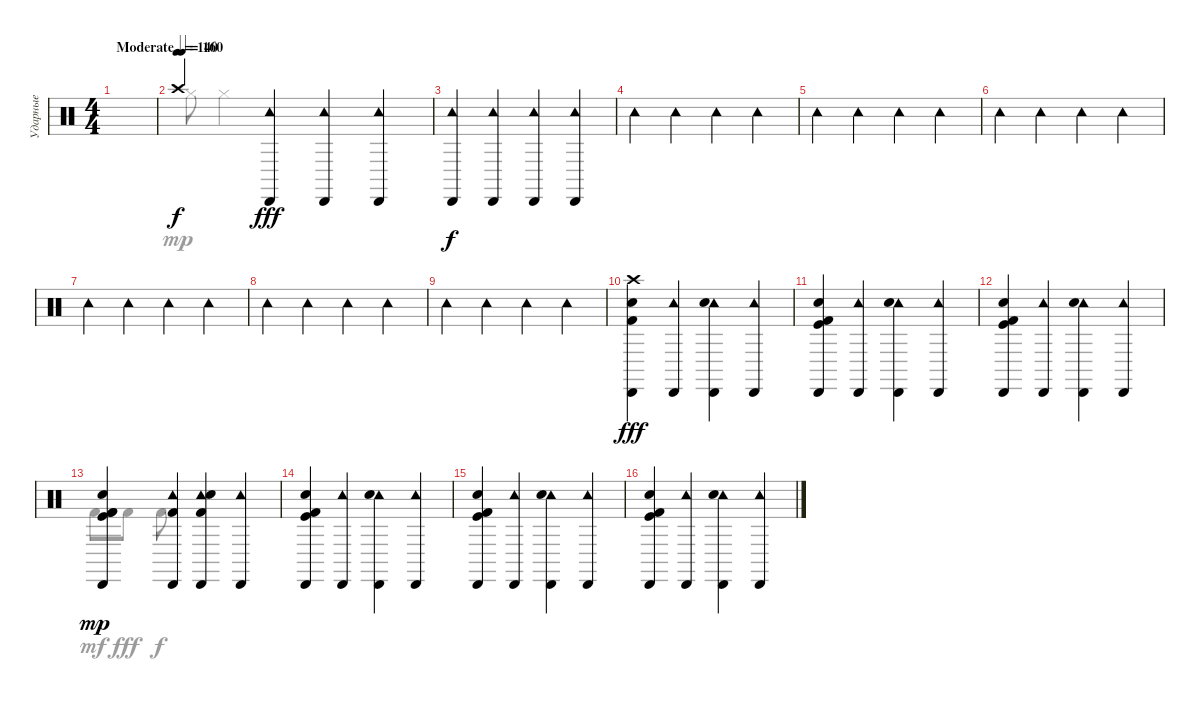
\track ("Ударные" "Ударные") {instrument percussion}
\staff {score}
\articulation defaults
\voice
\ts (4 4)
\tempo (160 "Moderate")
\clef neutral
\ks c
|
\tempo (140)
"Crash high (hit)".4 ("Tambourine (hit)" "Cabasa (hit)").4{dy fff} ("Tambourine (hit)" "Cabasa (hit)").4 ("Tambourine (hit)" "Cabasa (hit)").4 |
("Tambourine (hit)" "Cabasa (hit)").4{dy f} ("Tambourine (hit)" "Cabasa (hit)").4 ("Tambourine (hit)" "Cabasa (hit)").4 ("Tambourine (hit)" "Cabasa (hit)").4 |
"Tambourine (hit)".4 "Tambourine (hit)".4 "Tambourine (hit)".4 "Tambourine (hit)".4 |
"Tambourine (hit)".4 "Tambourine (hit)".4 "Tambourine (hit)".4 "Tambourine (hit)".4 |
"Tambourine (hit)".4 "Tambourine (hit)".4 "Tambourine (hit)".4 "Tambourine (hit)".4 |
"Tambourine (hit)".4 "Tambourine (hit)".4 "Tambourine (hit)".4 "Tambourine (hit)".4 |
"Tambourine (hit)".4 "Tambourine (hit)".4 "Tambourine (hit)".4 "Tambourine (hit)".4 |
"Tambourine (hit)".4 "Tambourine (hit)".4 "Tambourine (hit)".4 "Tambourine (hit)".4 |
("Cabasa (hit)" "Crash high (hit)" "Electric Snare (hit)" "Kick (hit) 2").4{dy fff} ("Cabasa (hit)" "Tambourine (hit)").4 ("Cabasa (hit)" "Tambourine (hit)" "Electric Snare (hit)").4 ("Cabasa (hit)" "Tambourine (hit)").4 |
("Cabasa (hit)" "Electric Snare (hit)" "Kick (hit) 2" "Kick (hit)").4 ("Cabasa (hit)" "Tambourine (hit)").4 ("Cabasa (hit)" "Tambourine (hit)" "Electric Snare (hit)").4 ("Cabasa (hit)" "Tambourine (hit)").4 |
("Cabasa (hit)" "Electric Snare (hit)" "Kick (hit)" "Kick (hit) 2").4 ("Cabasa (hit)" "Tambourine (hit)").4 ("Cabasa (hit)" "Tambourine (hit)" "Electric Snare (hit)").4 ("Cabasa (hit)" "Tambourine (hit)").4 |
("Cabasa (hit)" "Electric Snare (hit)" "Kick (hit) 2" "Kick (hit)" "Kick (hit) 2").4{dy mp} ("Cabasa (hit)" "Tambourine (hit)" "Kick (hit) 2").4 ("Cabasa (hit)" "Tambourine (hit)" "Electric Snare (hit)" "Kick (hit) 2").4 ("Cabasa (hit)" "Tambourine (hit)").4 |
("Cabasa (hit)" "Electric Snare (hit)" "Kick (hit) 2" "Kick (hit)").4 ("Cabasa (hit)" "Tambourine (hit)").4 ("Cabasa (hit)" "Tambourine (hit)" "Electric Snare (hit)").4 ("Cabasa (hit)" "Tambourine (hit)").4 |
("Cabasa (hit)" "Electric Snare (hit)" "Kick (hit) 2" "Kick (hit)").4 ("Cabasa (hit)" "Tambourine (hit)").4 ("Cabasa (hit)" "Tambourine (hit)" "Electric Snare (hit)").4 ("Cabasa (hit)" "Tambourine (hit)").4 |
("Cabasa (hit)" "Electric Snare (hit)" "Kick (hit) 2" "Kick (hit)").4 ("Cabasa (hit)" "Tambourine (hit)").4 ("Cabasa (hit)" "Tambourine (hit)" "Electric Snare (hit)").4 ("Cabasa (hit)" "Tambourine (hit)").4
\voice
\clef neutral
\ottava regular
\simile none
\ks c
|
"Hi-Hat (closed)".8 "Hi-Hat (closed)".4 |
|
|
|
|
|
|
|
|
|
|
"Kick (hit) 2".8{dy mf} "Kick (hit) 2".8{dy fff} "Kick (hit) 2".8{dy f} |
|
|
